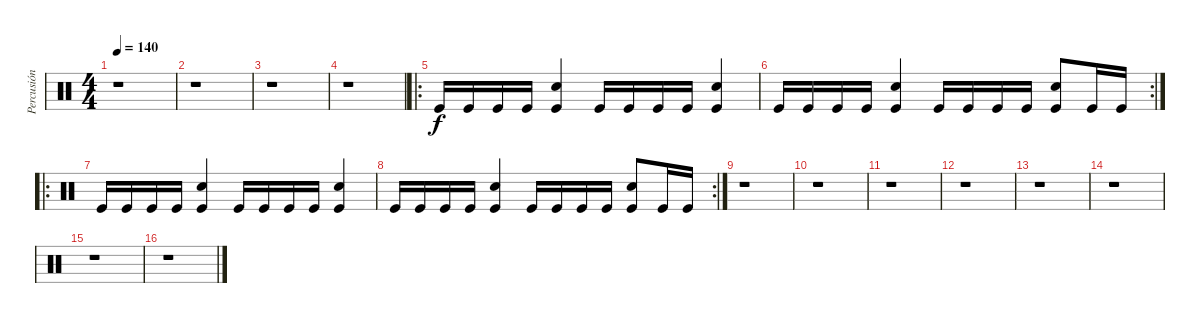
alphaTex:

\track ("Percusión" "Percusión") {instrument percussion}
\staff {score}
\articulation defaults
\ts (4 4)
\tempo 140
\clef neutral
\ks c
r.1{dy f} |
r.1 |
r.1 |
r.1 |
\ro "Kick (hit)".16 "Kick (hit)".16 "Kick (hit)".16 "Kick (hit)".16
("Snare (hit) 2" "Kick (hit)").4 "Kick (hit)".16 "Kick (hit)".16 "Kick (hit)".16 "Kick (hit)".16 ("Snare (hit) 2" "Kick (hit)").4 |
\rc 2 "Kick (hit)".16 "Kick (hit)".16 "Kick (hit)".16 "Kick (hit)".16
("Snare (hit) 2" "Kick (hit)").4 "Kick (hit)".16 "Kick (hit)".16 "Kick (hit)".16 "Kick (hit)".16 ("Snare (hit) 2" "Kick (hit)").8 "Kick (hit)".16 "Kick (hit)".16 |
\ro "Kick (hit)".16 "Kick (hit)".16 "Kick (hit)".16 "Kick (hit)".16
("Snare (hit) 2" "Kick (hit)").4 "Kick (hit)".16 "Kick (hit)".16 "Kick (hit)".16 "Kick (hit)".16 ("Snare (hit) 2" "Kick (hit)").4 |
\rc 2 "Kick (hit)".16 "Kick (hit)".16 "Kick (hit)".16 "Kick (hit)".16
("Snare (hit) 2" "Kick (hit)").4 "Kick (hit)".16 "Kick (hit)".16 "Kick (hit)".16 "Kick (hit)".16 ("Snare (hit) 2" "Kick (hit)").8 "Kick (hit)".16 "Kick (hit)".16 |
r.1 |
r.1 |
r.1 |
r.1 |
r.1 |
r.1 |
r.1 |
r.1
